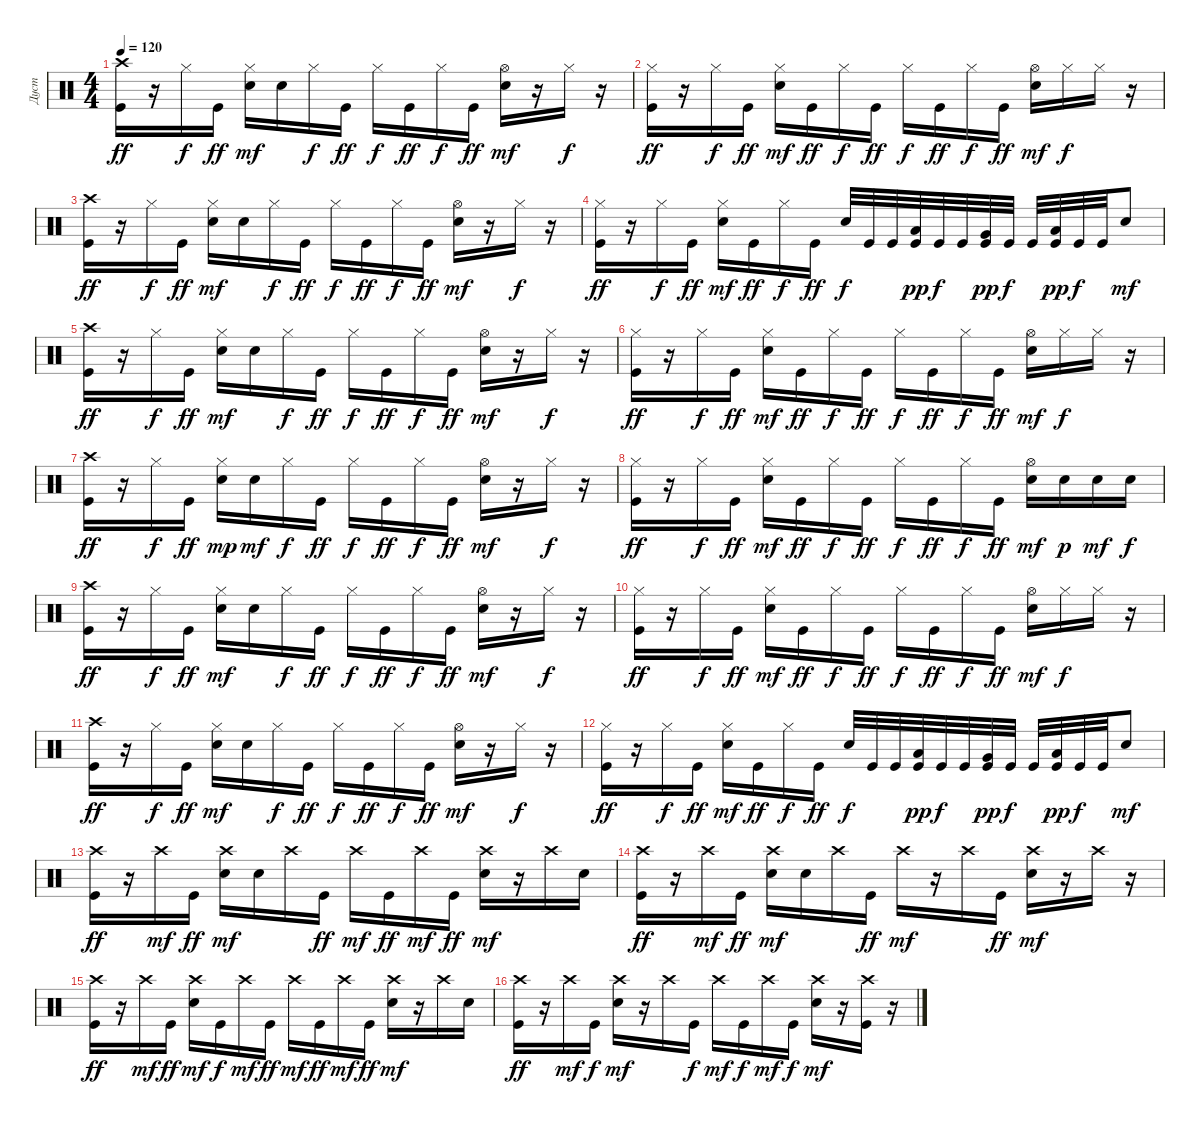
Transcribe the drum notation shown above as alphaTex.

\track ("Дуст" "Дуст") {instrument percussion}
\staff {score}
\articulation defaults
\ts (4 4)
\tempo 120
\clef neutral
\ks c
("Crash high (hit)" "Kick (hit)").16{dy ff} r.16 "Hi-Hat (closed)".16{dy f} "Kick (hit)".16{dy ff} ("Hi-Hat (closed)" "Metronome (bell)").16{dy mf} "Metronome (bell)".16 "Hi-Hat (closed)".16{dy f} "Kick (hit)".16{dy ff} "Hi-Hat (closed)".16{dy f} "Kick (hit)".16{dy ff} "Hi-Hat (closed)".16{dy f} "Kick (hit)".16{dy ff} ("Hi-Hat (open)" "Metronome (bell)").16{dy mf} r.16 "Hi-Hat (closed)".16{dy f} r.16 |
("Hi-Hat (closed)" "Kick (hit)").16{dy ff} r.16 "Hi-Hat (closed)".16{dy f} "Kick (hit)".16{dy ff} ("Hi-Hat (closed)" "Metronome (bell)").16{dy mf} "Kick (hit)".16{dy ff} "Hi-Hat (closed)".16{dy f} "Kick (hit)".16{dy ff} "Hi-Hat (closed)".16{dy f} "Kick (hit)".16{dy ff} "Hi-Hat (closed)".16{dy f} "Kick (hit)".16{dy ff} ("Hi-Hat (open)" "Metronome (bell)").16{dy mf} "Hi-Hat (closed)".16{dy f} "Hi-Hat (closed)".16 r.16 |
("Crash high (hit)" "Kick (hit)").16{dy ff} r.16 "Hi-Hat (closed)".16{dy f} "Kick (hit)".16{dy ff} ("Hi-Hat (closed)" "Metronome (bell)").16{dy mf} "Metronome (bell)".16 "Hi-Hat (closed)".16{dy f} "Kick (hit)".16{dy ff} "Hi-Hat (closed)".16{dy f} "Kick (hit)".16{dy ff} "Hi-Hat (closed)".16{dy f} "Kick (hit)".16{dy ff} ("Hi-Hat (open)" "Metronome (bell)").16{dy mf} r.16 "Hi-Hat (closed)".16{dy f} r.16 |
("Hi-Hat (closed)" "Kick (hit)").16{dy ff} r.16 "Hi-Hat (closed)".16{dy f} "Kick (hit)".16{dy ff} ("Hi-Hat (closed)" "Metronome (bell)").16{dy mf} "Kick (hit)".16{dy ff} "Hi-Hat (closed)".16{dy f} "Kick (hit)".16{dy ff} "Metronome (bell)".32{dy f} "Kick (hit)".32 "Kick (hit)".32 ("Low Tom (hit)" "Kick (hit)").32{dy pp} "Kick (hit)".32{dy f} "Kick (hit)".32 ("Very Low Tom (hit)" "Kick (hit)").32{dy pp} "Kick (hit)".32{dy f} "Kick (hit)".32 ("Low Floor Tom (hit)" "Kick (hit)").32{dy pp} "Kick (hit)".32{dy f} "Kick (hit)".32 "Metronome (bell)".8{dy mf} |
("Crash high (hit)" "Kick (hit)").16{dy ff} r.16 "Hi-Hat (closed)".16{dy f} "Kick (hit)".16{dy ff} ("Hi-Hat (closed)" "Metronome (bell)").16{dy mf} "Metronome (bell)".16 "Hi-Hat (closed)".16{dy f} "Kick (hit)".16{dy ff} "Hi-Hat (closed)".16{dy f} "Kick (hit)".16{dy ff} "Hi-Hat (closed)".16{dy f} "Kick (hit)".16{dy ff} ("Hi-Hat (open)" "Metronome (bell)").16{dy mf} r.16 "Hi-Hat (closed)".16{dy f} r.16 |
("Hi-Hat (closed)" "Kick (hit)").16{dy ff} r.16 "Hi-Hat (closed)".16{dy f} "Kick (hit)".16{dy ff} ("Hi-Hat (closed)" "Metronome (bell)").16{dy mf} "Kick (hit)".16{dy ff} "Hi-Hat (closed)".16{dy f} "Kick (hit)".16{dy ff} "Hi-Hat (closed)".16{dy f} "Kick (hit)".16{dy ff} "Hi-Hat (closed)".16{dy f} "Kick (hit)".16{dy ff} ("Hi-Hat (open)" "Metronome (bell)").16{dy mf} "Hi-Hat (closed)".16{dy f} "Hi-Hat (closed)".16 r.16 |
("Crash high (hit)" "Kick (hit)").16{dy ff} r.16 "Hi-Hat (closed)".16{dy f} "Kick (hit)".16{dy ff} ("Hi-Hat (closed)" "Metronome (bell)").16{dy mp} "Metronome (bell)".16{dy mf} "Hi-Hat (closed)".16{dy f} "Kick (hit)".16{dy ff} "Hi-Hat (closed)".16{dy f} "Kick (hit)".16{dy ff} "Hi-Hat (closed)".16{dy f} "Kick (hit)".16{dy ff} ("Hi-Hat (open)" "Metronome (bell)").16{dy mf} r.16 "Hi-Hat (closed)".16{dy f} r.16 |
("Hi-Hat (closed)" "Kick (hit)").16{dy ff} r.16 "Hi-Hat (closed)".16{dy f} "Kick (hit)".16{dy ff} ("Hi-Hat (closed)" "Metronome (bell)").16{dy mf} "Kick (hit)".16{dy ff} "Hi-Hat (closed)".16{dy f} "Kick (hit)".16{dy ff} "Hi-Hat (closed)".16{dy f} "Kick (hit)".16{dy ff} "Hi-Hat (closed)".16{dy f} "Kick (hit)".16{dy ff} ("Hi-Hat (open)" "Metronome (bell)").16{dy mf} "Metronome (bell)".16{dy p} "Metronome (bell)".16{dy mf} "Metronome (bell)".16{dy f} |
("Crash high (hit)" "Kick (hit)").16{dy ff} r.16 "Hi-Hat (closed)".16{dy f} "Kick (hit)".16{dy ff} ("Hi-Hat (closed)" "Metronome (bell)").16{dy mf} "Metronome (bell)".16 "Hi-Hat (closed)".16{dy f} "Kick (hit)".16{dy ff} "Hi-Hat (closed)".16{dy f} "Kick (hit)".16{dy ff} "Hi-Hat (closed)".16{dy f} "Kick (hit)".16{dy ff} ("Hi-Hat (open)" "Metronome (bell)").16{dy mf} r.16 "Hi-Hat (closed)".16{dy f} r.16 |
("Hi-Hat (closed)" "Kick (hit)").16{dy ff} r.16 "Hi-Hat (closed)".16{dy f} "Kick (hit)".16{dy ff} ("Hi-Hat (closed)" "Metronome (bell)").16{dy mf} "Kick (hit)".16{dy ff} "Hi-Hat (closed)".16{dy f} "Kick (hit)".16{dy ff} "Hi-Hat (closed)".16{dy f} "Kick (hit)".16{dy ff} "Hi-Hat (closed)".16{dy f} "Kick (hit)".16{dy ff} ("Hi-Hat (open)" "Metronome (bell)").16{dy mf} "Hi-Hat (closed)".16{dy f} "Hi-Hat (closed)".16 r.16 |
("Crash high (hit)" "Kick (hit)").16{dy ff} r.16 "Hi-Hat (closed)".16{dy f} "Kick (hit)".16{dy ff} ("Hi-Hat (closed)" "Metronome (bell)").16{dy mf} "Metronome (bell)".16 "Hi-Hat (closed)".16{dy f} "Kick (hit)".16{dy ff} "Hi-Hat (closed)".16{dy f} "Kick (hit)".16{dy ff} "Hi-Hat (closed)".16{dy f} "Kick (hit)".16{dy ff} ("Hi-Hat (open)" "Metronome (bell)").16{dy mf} r.16 "Hi-Hat (closed)".16{dy f} r.16 |
("Hi-Hat (closed)" "Kick (hit)").16{dy ff} r.16 "Hi-Hat (closed)".16{dy f} "Kick (hit)".16{dy ff} ("Hi-Hat (closed)" "Metronome (bell)").16{dy mf} "Kick (hit)".16{dy ff} "Hi-Hat (closed)".16{dy f} "Kick (hit)".16{dy ff} "Metronome (bell)".32{dy f} "Kick (hit)".32 "Kick (hit)".32 ("Low Tom (hit)" "Kick (hit)").32{dy pp} "Kick (hit)".32{dy f} "Kick (hit)".32 ("Very Low Tom (hit)" "Kick (hit)").32{dy pp} "Kick (hit)".32{dy f} "Kick (hit)".32 ("Low Floor Tom (hit)" "Kick (hit)").32{dy pp} "Kick (hit)".32{dy f} "Kick (hit)".32 "Metronome (bell)".8{dy mf} |
("Crash high (hit)" "Kick (hit)").16{dy ff} r.16 "Crash high (hit)".16{dy mf} "Kick (hit)".16{dy ff} ("Crash high (hit)" "Metronome (bell)").16{dy mf} "Metronome (bell)".16 "Crash high (hit)".16 "Kick (hit)".16{dy ff} "Crash high (hit)".16{dy mf} "Kick (hit)".16{dy ff} "Crash high (hit)".16{dy mf} "Kick (hit)".16{dy ff} ("Crash high (hit)" "Metronome (bell)").16{dy mf} r.16 "Crash high (hit)".16 "Metronome (bell)".16 |
("Crash high (hit)" "Kick (hit)").16{dy ff} r.16 "Crash high (hit)".16{dy mf} "Kick (hit)".16{dy ff} ("Crash high (hit)" "Metronome (bell)").16{dy mf} "Metronome (bell)".16 "Crash high (hit)".16 "Kick (hit)".16{dy ff} "Crash high (hit)".16{dy mf} r.16 "Crash high (hit)".16 "Kick (hit)".16{dy ff} ("Crash high (hit)" "Metronome (bell)").16{dy mf} r.16 "Crash high (hit)".16 r.16 |
("Crash high (hit)" "Kick (hit)").16{dy ff} r.16 "Crash high (hit)".16{dy mf} "Kick (hit)".16{dy ff} ("Crash high (hit)" "Metronome (bell)").16{dy mf} "Kick (hit)".16{dy f} "Crash high (hit)".16{dy mf} "Kick (hit)".16{dy ff} "Crash high (hit)".16{dy mf} "Kick (hit)".16{dy ff} "Crash high (hit)".16{dy mf} "Kick (hit)".16{dy ff} ("Crash high (hit)" "Metronome (bell)").16{dy mf} r.16 "Crash high (hit)".16 "Metronome (bell)".16 |
("Crash high (hit)" "Kick (hit)").16{dy ff} r.16 "Crash high (hit)".16{dy mf} "Kick (hit)".16{dy f} ("Crash high (hit)" "Metronome (bell)").16{dy mf} r.16 "Crash high (hit)".16 "Kick (hit)".16{dy f} "Crash high (hit)".16{dy mf} "Kick (hit)".16{dy f} "Crash high (hit)".16{dy mf} "Kick (hit)".16{dy f} ("Crash high (hit)" "Metronome (bell)").16{dy mf} r.16 ("Crash high (hit)" "Kick (hit)").16 r.16
